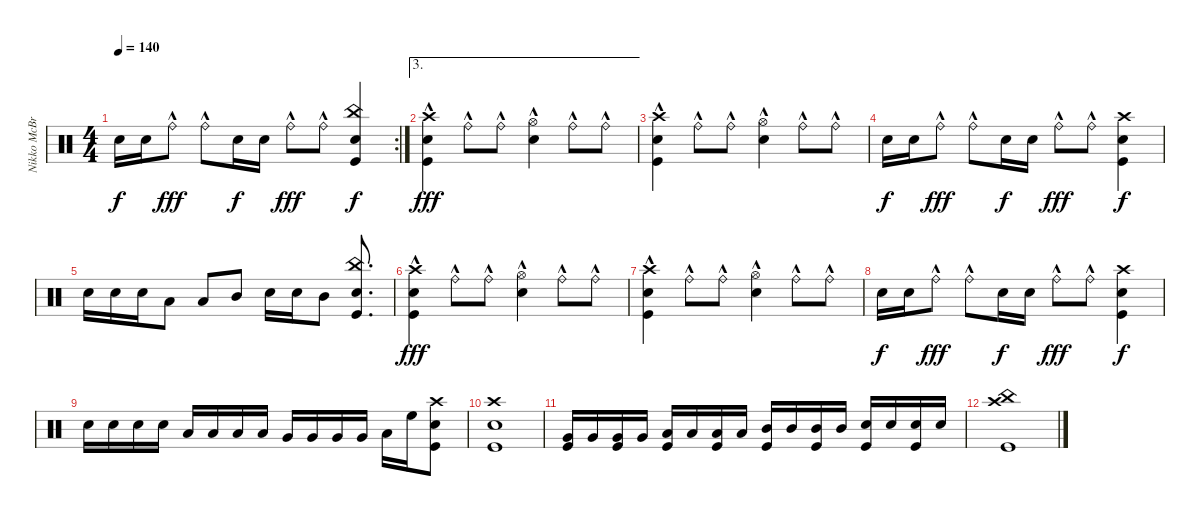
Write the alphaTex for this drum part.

\track ("Nikko McBrain" "Nikko McBr") {instrument percussion}
\staff {score}
\articulation defaults
\rc 2
\ts (4 4)
\tempo 140
\clef neutral
\ks c "Snare (hit) 2".16{dy f} "Snare (hit) 2".16 "Ride (bell)"{hac}.8{dy fff} "Ride (bell)"{hac}.8 "Snare (hit) 2".16{dy f} "Snare (hit) 2".16 "Ride (bell)"{hac}.8{dy fff} "Ride (bell)"{hac}.8
("China (hit)" "Kick (hit)" "Snare (hit) 2").4{dy f} |
\ae 3
("Crash high (hit)"{hac} "Kick (hit)"{hac} "Snare (hit) 2"{hac}).4{dy fff} "Ride (bell)"{hac}.8 "Ride (bell)"{hac}.8 ("Hi-Hat (open)" "Snare (hit) 2"{hac}).4 "Ride (bell)"{hac}.8 "Ride (bell)"{hac}.8 |
("Crash high (hit)"{hac} "Kick (hit)"{hac} "Snare (hit) 2"{hac}).4 "Ride (bell)"{hac}.8 "Ride (bell)"{hac}.8 ("Hi-Hat (open)" "Snare (hit) 2"{hac}).4 "Ride (bell)"{hac}.8 "Ride (bell)"{hac}.8 |
"Snare (hit) 2".16{dy f} "Snare (hit) 2".16 "Ride (bell)"{hac}.8{dy fff} "Ride (bell)"{hac}.8 "Snare (hit) 2".16{dy f} "Snare (hit) 2".16 "Ride (bell)"{hac}.8{dy fff} "Ride (bell)"{hac}.8 ("Crash high (hit)" "Kick (hit)" "Snare (hit) 2").4{dy f} |
"Snare (hit) 2".16 "Snare (hit) 2".16 "Snare (hit) 2".16 "Low Floor Tom (hit)".8 "Low Floor Tom (hit)".8 "Mid Tom (hit)".8 "Snare (hit) 2".16 "Snare (hit) 2".16 "Mid Tom (hit)".8 ("China (hit)" "Snare (hit) 2" "Kick (hit)").8{d} |
("Crash high (hit)"{hac} "Kick (hit)"{hac} "Snare (hit) 2"{hac}).4{dy fff} "Ride (bell)"{hac}.8 "Ride (bell)"{hac}.8 ("Hi-Hat (open)" "Snare (hit) 2"{hac}).4 "Ride (bell)"{hac}.8 "Ride (bell)"{hac}.8 |
("Crash high (hit)"{hac} "Kick (hit)"{hac} "Snare (hit) 2"{hac}).4 "Ride (bell)"{hac}.8 "Ride (bell)"{hac}.8 ("Hi-Hat (open)" "Snare (hit) 2"{hac}).4 "Ride (bell)"{hac}.8 "Ride (bell)"{hac}.8 |
"Snare (hit) 2".16{dy f} "Snare (hit) 2".16 "Ride (bell)"{hac}.8{dy fff} "Ride (bell)"{hac}.8 "Snare (hit) 2".16{dy f} "Snare (hit) 2".16 "Ride (bell)"{hac}.8{dy fff} "Ride (bell)"{hac}.8 ("Crash high (hit)" "Kick (hit)" "Snare (hit) 2").4{dy f} |
"Snare (hit) 2".16 "Snare (hit) 2".16 "Snare (hit) 2".16 "Snare (hit) 2".16 "Low Floor Tom (hit)".16 "Low Floor Tom (hit)".16 "Low Floor Tom (hit)".16 "Low Floor Tom (hit)".16 "Very Low Tom (hit)".16 "Very Low Tom (hit)".16 "Very Low Tom (hit)".16 "Very Low Tom (hit)".16 "Low Floor Tom (hit)".16 "High Floor Tom (hit)".16 ("Crash high (hit)" "Kick (hit)" "Snare (hit) 2").8 |
("Crash high (hit)" "Kick (hit)" "Snare (hit) 2").1 |
("Kick (hit)" "Very Low Tom (hit)").16 "Very Low Tom (hit)".16 ("Kick (hit)" "Very Low Tom (hit)").16 "Very Low Tom (hit)".16 ("Kick (hit)" "Low Floor Tom (hit)").16 "Low Floor Tom (hit)".16 ("Kick (hit)" "Low Floor Tom (hit)").16 "Low Floor Tom (hit)".16 ("Kick (hit)" "Mid Tom (hit)").16 "Mid Tom (hit)".16 ("Kick (hit)" "Mid Tom (hit)").16 "Mid Tom (hit)".16 ("Kick (hit)" "Snare (hit) 2").16 "Snare (hit) 2".16 ("Kick (hit)" "Snare (hit) 2").16 "Snare (hit) 2".16 |
("China (hit)" "Crash high (hit)" "Kick (hit)").1
